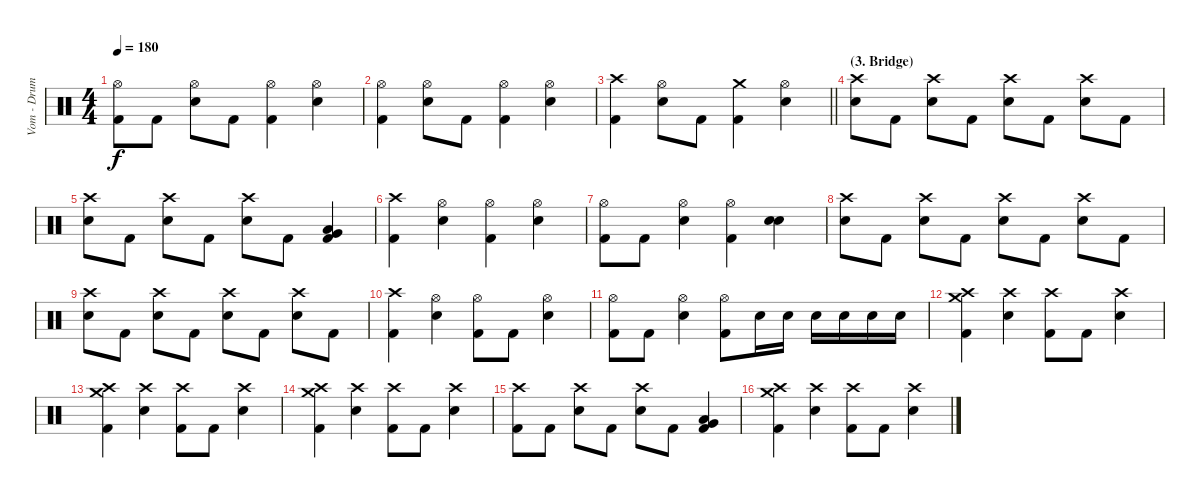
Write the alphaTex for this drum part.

\track ("Vom - Drums" "Vom - Drum") {instrument percussion}
\staff {score}
\articulation defaults
\ts (4 4)
\tempo 180
\clef neutral
\ks c
("Hi-Hat (open)" "Kick (hit) 2").8{dy f} "Kick (hit) 2".8 ("Hi-Hat (open)" "Electric Snare (hit)").8 "Kick (hit) 2".8 ("Hi-Hat (open)" "Kick (hit) 2").4 ("Hi-Hat (open)" "Electric Snare (hit)").4 |
("Hi-Hat (open)" "Kick (hit) 2").4 ("Hi-Hat (open)" "Electric Snare (hit)").8 "Kick (hit) 2".8 ("Hi-Hat (open)" "Kick (hit) 2").4 ("Hi-Hat (open)" "Electric Snare (hit)").4 |
\barLineRight lightlight
("Crash high (hit)" "Kick (hit) 2").4 ("Hi-Hat (open)" "Electric Snare (hit)").8 "Kick (hit) 2".8 ("Crash medium (hit)" "Kick (hit) 2").4 ("Hi-Hat (open)" "Electric Snare (hit)").4 |
\section ("" "(3. Bridge)")
("Crash high (hit)" "Electric Snare (hit)").8 "Kick (hit) 2".8 ("Crash high (hit)" "Electric Snare (hit)").8 "Kick (hit) 2".8 ("Crash high (hit)" "Electric Snare (hit)").8 "Kick (hit) 2".8 ("Crash high (hit)" "Electric Snare (hit)").8 "Kick (hit) 2".8 |
("Crash high (hit)" "Electric Snare (hit)").8 "Kick (hit) 2".8 ("Crash high (hit)" "Electric Snare (hit)").8 "Kick (hit) 2".8 ("Crash high (hit)" "Electric Snare (hit)").8 "Kick (hit) 2".8 ("Low Tom (hit)" "Very Low Tom (hit)" "Kick (hit) 2").4 |
("Kick (hit) 2" "Crash high (hit)").4 ("Electric Snare (hit)" "Hi-Hat (open)").4 ("Kick (hit) 2" "Hi-Hat (open)").4 ("Electric Snare (hit)" "Hi-Hat (open)").4 |
("Hi-Hat (open)" "Kick (hit) 2").8 "Kick (hit) 2".8 ("Hi-Hat (open)" "Electric Snare (hit)").4 ("Hi-Hat (open)" "Kick (hit) 2").4 ("Electric Snare (hit)" "Electric Snare (hit)").4 |
("Crash high (hit)" "Electric Snare (hit)").8 "Kick (hit) 2".8 ("Crash high (hit)" "Electric Snare (hit)").8 "Kick (hit) 2".8 ("Crash high (hit)" "Electric Snare (hit)").8 "Kick (hit) 2".8 ("Crash high (hit)" "Electric Snare (hit)").8 "Kick (hit) 2".8 |
("Crash high (hit)" "Electric Snare (hit)").8 "Kick (hit) 2".8 ("Crash high (hit)" "Electric Snare (hit)").8 "Kick (hit) 2".8 ("Crash high (hit)" "Electric Snare (hit)").8 "Kick (hit) 2".8 ("Crash high (hit)" "Electric Snare (hit)").8 "Kick (hit) 2".8 |
("Crash high (hit)" "Kick (hit) 2").4 ("Hi-Hat (open)" "Electric Snare (hit)").4 ("Hi-Hat (open)" "Kick (hit) 2").8 "Kick (hit) 2".8 ("Hi-Hat (open)" "Electric Snare (hit)").4 |
("Hi-Hat (open)" "Kick (hit) 2").8 "Kick (hit) 2".8 ("Hi-Hat (open)" "Electric Snare (hit)").4 ("Hi-Hat (open)" "Kick (hit) 2").8 "Electric Snare (hit)".16 "Electric Snare (hit)".16 "Electric Snare (hit)".16 "Electric Snare (hit)".16 "Electric Snare (hit)".16 "Electric Snare (hit)".16 |
("Crash high (hit)" "Crash medium (hit)" "Kick (hit) 2").4 ("Crash high (hit)" "Electric Snare (hit)").4 ("Crash high (hit)" "Kick (hit) 2").8 "Kick (hit) 2".8 ("Crash high (hit)" "Electric Snare (hit)").4 |
("Crash high (hit)" "Crash medium (hit)" "Kick (hit) 2").4 ("Crash high (hit)" "Electric Snare (hit)").4 ("Crash high (hit)" "Kick (hit) 2").8 "Kick (hit) 2".8 ("Crash high (hit)" "Electric Snare (hit)").4 |
("Crash high (hit)" "Crash medium (hit)" "Kick (hit) 2").4 ("Crash high (hit)" "Electric Snare (hit)").4 ("Crash high (hit)" "Kick (hit) 2").8 "Kick (hit) 2".8 ("Crash high (hit)" "Electric Snare (hit)").4 |
("Crash high (hit)" "Kick (hit) 2").8 "Kick (hit) 2".8 ("Crash high (hit)" "Electric Snare (hit)").8 "Kick (hit) 2".8 ("Crash high (hit)" "Electric Snare (hit)").8 "Kick (hit) 2".8 ("Low Tom (hit)" "Very Low Tom (hit)" "Kick (hit) 2").4 |
("Crash high (hit)" "Crash medium (hit)" "Kick (hit) 2").4 ("Crash high (hit)" "Electric Snare (hit)").4 ("Crash high (hit)" "Kick (hit) 2").8 "Kick (hit) 2".8 ("Crash high (hit)" "Electric Snare (hit)").4
